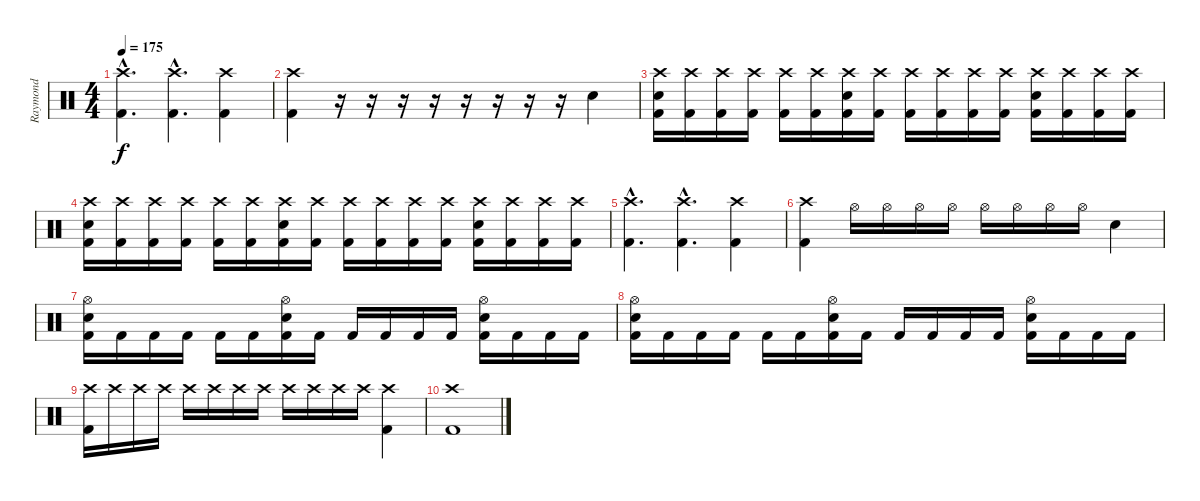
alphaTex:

\track ("Raymond" "Raymond") {instrument percussion}
\staff {score}
\articulation defaults
\ts (4 4)
\tempo 175
\clef neutral
\ks c
("Crash high (hit)"{hac} "Kick (hit) 2"{hac}).4{d dy f} ("Crash high (hit)"{hac} "Kick (hit) 2"{hac}).4{d} ("Crash high (hit)" "Kick (hit) 2").4 |
("Crash high (hit)" "Kick (hit) 2").4 r.16 r.16 r.16 r.16 r.16 r.16 r.16 r.16 "Electric Snare (hit)".4 |
("Crash high (hit)" "Electric Snare (hit)" "Kick (hit) 2").16 ("Crash high (hit)" "Kick (hit) 2").16 ("Crash high (hit)" "Kick (hit) 2").16 ("Crash high (hit)" "Kick (hit) 2").16 ("Crash high (hit)" "Kick (hit) 2").16 ("Crash high (hit)" "Kick (hit) 2").16 ("Crash high (hit)" "Electric Snare (hit)" "Kick (hit) 2").16 ("Crash high (hit)" "Kick (hit) 2").16 ("Crash high (hit)" "Kick (hit) 2").16 ("Crash high (hit)" "Kick (hit) 2").16 ("Crash high (hit)" "Kick (hit) 2").16 ("Crash high (hit)" "Kick (hit) 2").16 ("Crash high (hit)" "Electric Snare (hit)" "Kick (hit) 2").16 ("Crash high (hit)" "Kick (hit) 2").16 ("Crash high (hit)" "Kick (hit) 2").16 ("Crash high (hit)" "Kick (hit) 2").16 |
("Crash high (hit)" "Electric Snare (hit)" "Kick (hit) 2").16 ("Crash high (hit)" "Kick (hit) 2").16 ("Crash high (hit)" "Kick (hit) 2").16 ("Crash high (hit)" "Kick (hit) 2").16 ("Crash high (hit)" "Kick (hit) 2").16 ("Crash high (hit)" "Kick (hit) 2").16 ("Crash high (hit)" "Electric Snare (hit)" "Kick (hit) 2").16 ("Crash high (hit)" "Kick (hit) 2").16 ("Crash high (hit)" "Kick (hit) 2").16 ("Crash high (hit)" "Kick (hit) 2").16 ("Crash high (hit)" "Kick (hit) 2").16 ("Crash high (hit)" "Kick (hit) 2").16 ("Crash high (hit)" "Electric Snare (hit)" "Kick (hit) 2").16 ("Crash high (hit)" "Kick (hit) 2").16 ("Crash high (hit)" "Kick (hit) 2").16 ("Crash high (hit)" "Kick (hit) 2").16 |
("Crash high (hit)"{hac} "Kick (hit) 2"{hac}).4{d} ("Crash high (hit)"{hac} "Kick (hit) 2"{hac}).4{d} ("Crash high (hit)" "Kick (hit) 2").4 |
("Crash high (hit)" "Kick (hit) 2").4 "Hi-Hat (open)".16 "Hi-Hat (open)".16 "Hi-Hat (open)".16 "Hi-Hat (open)".16 "Hi-Hat (open)".16 "Hi-Hat (open)".16 "Hi-Hat (open)".16 "Hi-Hat (open)".16 "Electric Snare (hit)".4 |
("Hi-Hat (open)" "Electric Snare (hit)" "Kick (hit) 2").16 "Kick (hit) 2".16 "Kick (hit) 2".16 "Kick (hit) 2".16 "Kick (hit) 2".16 "Kick (hit) 2".16 ("Hi-Hat (open)" "Electric Snare (hit)" "Kick (hit) 2").16 "Kick (hit) 2".16 "Kick (hit) 2".16 "Kick (hit) 2".16 "Kick (hit) 2".16 "Kick (hit) 2".16 ("Hi-Hat (open)" "Electric Snare (hit)" "Kick (hit) 2").16 "Kick (hit) 2".16 "Kick (hit) 2".16 "Kick (hit) 2".16 |
("Hi-Hat (open)" "Electric Snare (hit)" "Kick (hit) 2").16 "Kick (hit) 2".16 "Kick (hit) 2".16 "Kick (hit) 2".16 "Kick (hit) 2".16 "Kick (hit) 2".16 ("Hi-Hat (open)" "Electric Snare (hit)" "Kick (hit) 2").16 "Kick (hit) 2".16 "Kick (hit) 2".16 "Kick (hit) 2".16 "Kick (hit) 2".16 "Kick (hit) 2".16 ("Hi-Hat (open)" "Electric Snare (hit)" "Kick (hit) 2").16 "Kick (hit) 2".16 "Kick (hit) 2".16 "Kick (hit) 2".16 |
("Crash high (hit)" "Kick (hit) 2").16 "Crash high (hit)".16 "Crash high (hit)".16 "Crash high (hit)".16 "Crash high (hit)".16 "Crash high (hit)".16 "Crash high (hit)".16 "Crash high (hit)".16 "Crash high (hit)".16 "Crash high (hit)".16 "Crash high (hit)".16 "Crash high (hit)".16 ("Crash high (hit)" "Kick (hit) 2").4 |
("Crash high (hit)" "Kick (hit) 2").1
